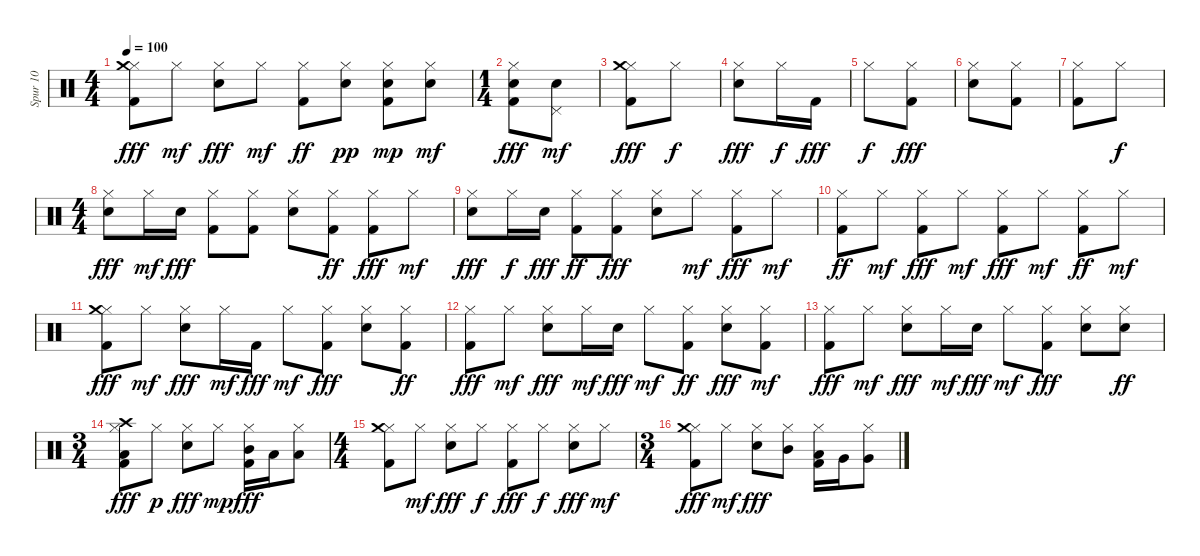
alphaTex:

\track ("Spur 10" "Spur 10") {instrument percussion}
\staff {score}
\articulation defaults
\ts (4 4)
\tempo 100
\clef neutral
\ks c
("Hi-Hat (closed)" "Crash medium (hit)" "Kick (hit) 2").8{dy fff} "Hi-Hat (closed)".8{dy mf} ("Hi-Hat (closed)" "Metronome (bell)").8{dy fff} "Hi-Hat (closed)".8{dy mf} ("Hi-Hat (closed)" "Kick (hit) 2").8{dy ff} ("Hi-Hat (closed)" "Metronome (bell)").8{dy pp} ("Hi-Hat (closed)" "Kick (hit) 2" "Metronome (bell)").8{dy mp} ("Hi-Hat (closed)" "Metronome (bell)").8{dy mf} |
\ts (1 4)
("Hi-Hat (closed)" "Metronome (bell)" "Kick (hit) 2").8{dy fff} ("Pedal Hi-Hat (hit)" "Metronome (bell)").8{dy mf} |
("Hi-Hat (closed)" "Kick (hit) 2" "Crash medium (hit)").8{dy fff} "Hi-Hat (closed)".8{dy f} |
("Hi-Hat (closed)" "Metronome (bell)").8{dy fff} "Hi-Hat (closed)".16{dy f} "Kick (hit) 2".16{dy fff} |
"Hi-Hat (closed)".8{dy f} ("Hi-Hat (closed)" "Kick (hit) 2").8{dy fff} |
("Hi-Hat (closed)" "Metronome (bell)").8 ("Hi-Hat (closed)" "Kick (hit) 2").8 |
("Hi-Hat (closed)" "Kick (hit) 2").8 "Hi-Hat (closed)".8{dy f} |
\ts (4 4)
("Hi-Hat (closed)" "Metronome (bell)").8{dy fff} "Hi-Hat (closed)".16{dy mf} "Metronome (bell)".16{dy fff} ("Hi-Hat (closed)" "Kick (hit) 2").8 ("Hi-Hat (closed)" "Kick (hit) 2").8 ("Hi-Hat (closed)" "Metronome (bell)").8 ("Hi-Hat (closed)" "Kick (hit) 2").8{dy ff} ("Hi-Hat (closed)" "Kick (hit) 2").8{dy fff} "Hi-Hat (closed)".8{dy mf} |
("Hi-Hat (closed)" "Metronome (bell)").8{dy fff} "Hi-Hat (closed)".16{dy f} "Metronome (bell)".16{dy fff} ("Hi-Hat (closed)" "Kick (hit) 2").8{dy ff} ("Hi-Hat (closed)" "Kick (hit) 2").8{dy fff} ("Hi-Hat (closed)" "Metronome (bell)").8 "Hi-Hat (closed)".8{dy mf} ("Hi-Hat (closed)" "Kick (hit) 2").8{dy fff} "Hi-Hat (closed)".8{dy mf} |
("Hi-Hat (closed)" "Kick (hit) 2").8{dy ff} "Hi-Hat (closed)".8{dy mf} ("Hi-Hat (closed)" "Kick (hit) 2").8{dy fff} "Hi-Hat (closed)".8{dy mf} ("Hi-Hat (closed)" "Kick (hit) 2").8{dy fff} "Hi-Hat (closed)".8{dy mf} ("Hi-Hat (closed)" "Kick (hit) 2").8{dy ff} "Hi-Hat (closed)".8{dy mf} |
("Hi-Hat (closed)" "Crash medium (hit)" "Kick (hit) 2").8{dy fff} "Hi-Hat (closed)".8{dy mf} ("Hi-Hat (closed)" "Metronome (bell)").8{dy fff} "Hi-Hat (closed)".16{dy mf} "Kick (hit) 2".16{dy fff} "Hi-Hat (closed)".8{dy mf} ("Hi-Hat (closed)" "Kick (hit) 2").8{dy fff} ("Hi-Hat (closed)" "Metronome (bell)").8 ("Hi-Hat (closed)" "Kick (hit) 2").8{dy ff} |
("Hi-Hat (closed)" "Kick (hit) 2").8{dy fff} "Hi-Hat (closed)".8{dy mf} ("Hi-Hat (closed)" "Metronome (bell)").8{dy fff} "Hi-Hat (closed)".16{dy mf} "Metronome (bell)".16{dy fff} "Hi-Hat (closed)".8{dy mf} ("Hi-Hat (closed)" "Kick (hit) 2").8{dy ff} ("Hi-Hat (closed)" "Metronome (bell)").8{dy fff} ("Hi-Hat (closed)" "Kick (hit) 2").8{dy mf} |
("Hi-Hat (closed)" "Kick (hit) 2").8{dy fff} "Hi-Hat (closed)".8{dy mf} ("Hi-Hat (closed)" "Metronome (bell)").8{dy fff} "Hi-Hat (closed)".16{dy mf} "Metronome (bell)".16{dy fff} "Hi-Hat (closed)".8{dy mf} ("Hi-Hat (closed)" "Kick (hit) 2").8{dy fff} ("Hi-Hat (closed)" "Metronome (bell)").8 ("Hi-Hat (closed)" "Metronome (bell)").8{dy ff} |
\ts (3 4)
("Hi-Hat (closed)" "Crash high (hit)" "Kick (hit) 2" "Low Tom (hit)").8{dy fff} "Hi-Hat (closed)".8{dy p} ("Hi-Hat (closed)" "Metronome (bell)").8{dy fff} "Hi-Hat (closed)".8{dy mp} ("Hi-Hat (closed)" "Kick (hit) 2" "Mid Tom (hit)").16{dy fff} "Low Tom (hit)".16 ("Hi-Hat (closed)" "Low Tom (hit)").8 |
\ts (4 4)
("Hi-Hat (closed)" "Kick (hit) 2" "Crash medium (hit)").8 "Hi-Hat (closed)".8{dy mf} ("Hi-Hat (closed)" "Metronome (bell)").8{dy fff} "Hi-Hat (closed)".8{dy f} ("Hi-Hat (closed)" "Kick (hit) 2").8{dy fff} "Hi-Hat (closed)".8{dy f} ("Hi-Hat (closed)" "Metronome (bell)").8{dy fff} "Hi-Hat (closed)".8{dy mf} |
\ts (3 4)
("Hi-Hat (closed)" "Kick (hit) 2" "Crash medium (hit)").8{dy fff} "Hi-Hat (closed)".8{dy mf} ("Hi-Hat (closed)" "Metronome (bell)").8{dy fff} ("Hi-Hat (closed)" "Mid Tom (hit)").8 ("Hi-Hat (closed)" "Kick (hit) 2" "Low Tom (hit)").16 "Very Low Tom (hit)".16 ("Hi-Hat (closed)" "Very Low Tom (hit)").8
